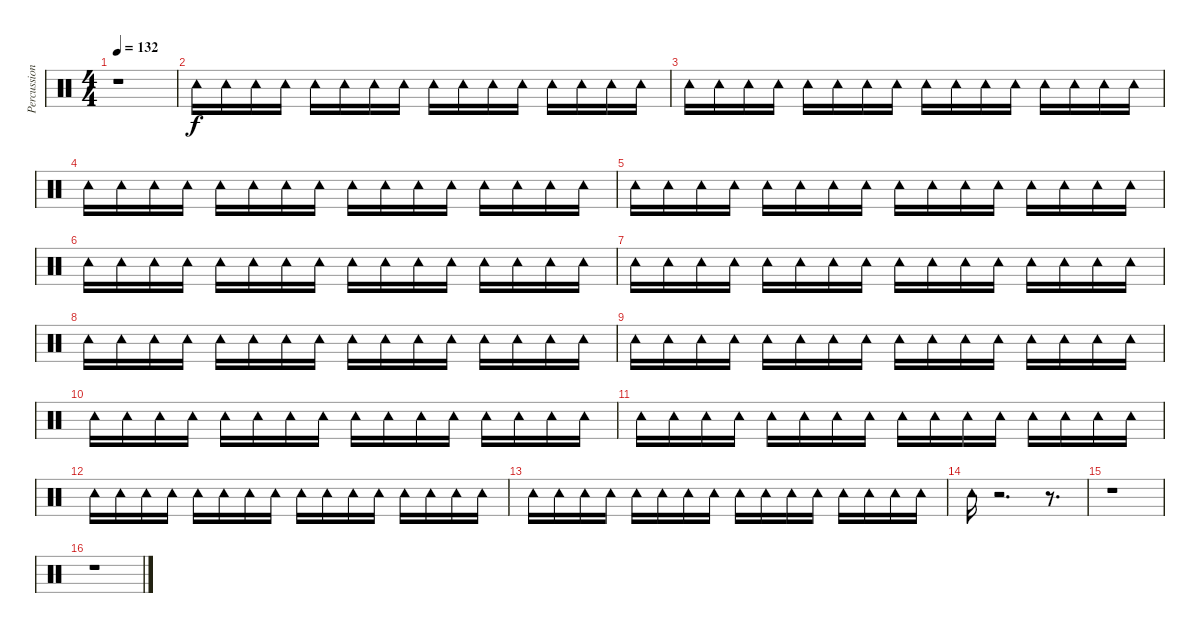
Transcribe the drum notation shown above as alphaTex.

\track ("Percussion" "Percussion") {instrument percussion}
\staff {score}
\articulation defaults
\ts (4 4)
\tempo 132
\clef neutral
\ks c
r.1{dy f} |
"Tambourine (hit)".16 "Tambourine (hit)".16 "Tambourine (hit)".16 "Tambourine (hit)".16 "Tambourine (hit)".16 "Tambourine (hit)".16 "Tambourine (hit)".16 "Tambourine (hit)".16 "Tambourine (hit)".16 "Tambourine (hit)".16 "Tambourine (hit)".16 "Tambourine (hit)".16 "Tambourine (hit)".16 "Tambourine (hit)".16 "Tambourine (hit)".16 "Tambourine (hit)".16 |
"Tambourine (hit)".16 "Tambourine (hit)".16 "Tambourine (hit)".16 "Tambourine (hit)".16 "Tambourine (hit)".16 "Tambourine (hit)".16 "Tambourine (hit)".16 "Tambourine (hit)".16 "Tambourine (hit)".16 "Tambourine (hit)".16 "Tambourine (hit)".16 "Tambourine (hit)".16 "Tambourine (hit)".16 "Tambourine (hit)".16 "Tambourine (hit)".16 "Tambourine (hit)".16 |
"Tambourine (hit)".16 "Tambourine (hit)".16 "Tambourine (hit)".16 "Tambourine (hit)".16 "Tambourine (hit)".16 "Tambourine (hit)".16 "Tambourine (hit)".16 "Tambourine (hit)".16 "Tambourine (hit)".16 "Tambourine (hit)".16 "Tambourine (hit)".16 "Tambourine (hit)".16 "Tambourine (hit)".16 "Tambourine (hit)".16 "Tambourine (hit)".16 "Tambourine (hit)".16 |
"Tambourine (hit)".16 "Tambourine (hit)".16 "Tambourine (hit)".16 "Tambourine (hit)".16 "Tambourine (hit)".16 "Tambourine (hit)".16 "Tambourine (hit)".16 "Tambourine (hit)".16 "Tambourine (hit)".16 "Tambourine (hit)".16 "Tambourine (hit)".16 "Tambourine (hit)".16 "Tambourine (hit)".16 "Tambourine (hit)".16 "Tambourine (hit)".16 "Tambourine (hit)".16 |
"Tambourine (hit)".16 "Tambourine (hit)".16 "Tambourine (hit)".16 "Tambourine (hit)".16 "Tambourine (hit)".16 "Tambourine (hit)".16 "Tambourine (hit)".16 "Tambourine (hit)".16 "Tambourine (hit)".16 "Tambourine (hit)".16 "Tambourine (hit)".16 "Tambourine (hit)".16 "Tambourine (hit)".16 "Tambourine (hit)".16 "Tambourine (hit)".16 "Tambourine (hit)".16 |
"Tambourine (hit)".16 "Tambourine (hit)".16 "Tambourine (hit)".16 "Tambourine (hit)".16 "Tambourine (hit)".16 "Tambourine (hit)".16 "Tambourine (hit)".16 "Tambourine (hit)".16 "Tambourine (hit)".16 "Tambourine (hit)".16 "Tambourine (hit)".16 "Tambourine (hit)".16 "Tambourine (hit)".16 "Tambourine (hit)".16 "Tambourine (hit)".16 "Tambourine (hit)".16 |
"Tambourine (hit)".16 "Tambourine (hit)".16 "Tambourine (hit)".16 "Tambourine (hit)".16 "Tambourine (hit)".16 "Tambourine (hit)".16 "Tambourine (hit)".16 "Tambourine (hit)".16 "Tambourine (hit)".16 "Tambourine (hit)".16 "Tambourine (hit)".16 "Tambourine (hit)".16 "Tambourine (hit)".16 "Tambourine (hit)".16 "Tambourine (hit)".16 "Tambourine (hit)".16 |
"Tambourine (hit)".16 "Tambourine (hit)".16 "Tambourine (hit)".16 "Tambourine (hit)".16 "Tambourine (hit)".16 "Tambourine (hit)".16 "Tambourine (hit)".16 "Tambourine (hit)".16 "Tambourine (hit)".16 "Tambourine (hit)".16 "Tambourine (hit)".16 "Tambourine (hit)".16 "Tambourine (hit)".16 "Tambourine (hit)".16 "Tambourine (hit)".16 "Tambourine (hit)".16 |
"Tambourine (hit)".16 "Tambourine (hit)".16 "Tambourine (hit)".16 "Tambourine (hit)".16 "Tambourine (hit)".16 "Tambourine (hit)".16 "Tambourine (hit)".16 "Tambourine (hit)".16 "Tambourine (hit)".16 "Tambourine (hit)".16 "Tambourine (hit)".16 "Tambourine (hit)".16 "Tambourine (hit)".16 "Tambourine (hit)".16 "Tambourine (hit)".16 "Tambourine (hit)".16 |
"Tambourine (hit)".16 "Tambourine (hit)".16 "Tambourine (hit)".16 "Tambourine (hit)".16 "Tambourine (hit)".16 "Tambourine (hit)".16 "Tambourine (hit)".16 "Tambourine (hit)".16 "Tambourine (hit)".16 "Tambourine (hit)".16 "Tambourine (hit)".16 "Tambourine (hit)".16 "Tambourine (hit)".16 "Tambourine (hit)".16 "Tambourine (hit)".16 "Tambourine (hit)".16 |
"Tambourine (hit)".16 "Tambourine (hit)".16 "Tambourine (hit)".16 "Tambourine (hit)".16 "Tambourine (hit)".16 "Tambourine (hit)".16 "Tambourine (hit)".16 "Tambourine (hit)".16 "Tambourine (hit)".16 "Tambourine (hit)".16 "Tambourine (hit)".16 "Tambourine (hit)".16 "Tambourine (hit)".16 "Tambourine (hit)".16 "Tambourine (hit)".16 "Tambourine (hit)".16 |
"Tambourine (hit)".16 "Tambourine (hit)".16 "Tambourine (hit)".16 "Tambourine (hit)".16 "Tambourine (hit)".16 "Tambourine (hit)".16 "Tambourine (hit)".16 "Tambourine (hit)".16 "Tambourine (hit)".16 "Tambourine (hit)".16 "Tambourine (hit)".16 "Tambourine (hit)".16 "Tambourine (hit)".16 "Tambourine (hit)".16 "Tambourine (hit)".16 "Tambourine (hit)".16 |
"Tambourine (hit)".16 r.2{d} r.8{d} |
r.1 |
r.1
